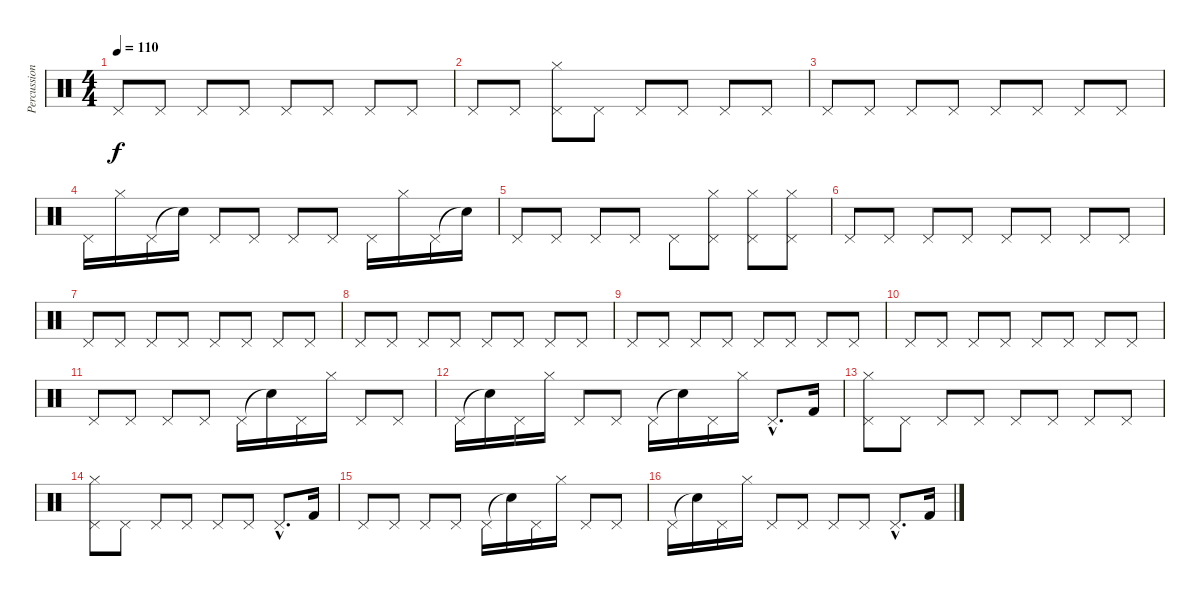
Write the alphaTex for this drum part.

\track ("Percussion" "Percussion") {instrument percussion}
\staff {score}
\articulation defaults
\ts (4 4)
\tempo 110
\clef neutral
\ks c "Pedal Hi-Hat (hit)".8{dy f} "Pedal Hi-Hat (hit)".8 "Pedal Hi-Hat (hit)".8 "Pedal Hi-Hat (hit)".8 "Pedal Hi-Hat (hit)".8 "Pedal Hi-Hat (hit)".8 "Pedal Hi-Hat (hit)".8 "Pedal Hi-Hat (hit)".8
|
"Pedal Hi-Hat (hit)".8 "Pedal Hi-Hat (hit)".8 ("Hi-Hat (closed)" "Pedal Hi-Hat (hit)").8 "Pedal Hi-Hat (hit)".8 "Pedal Hi-Hat (hit)".8 "Pedal Hi-Hat (hit)".8 "Pedal Hi-Hat (hit)".8 "Pedal Hi-Hat (hit)".8 |
"Pedal Hi-Hat (hit)".8 "Pedal Hi-Hat (hit)".8 "Pedal Hi-Hat (hit)".8 "Pedal Hi-Hat (hit)".8 "Pedal Hi-Hat (hit)".8 "Pedal Hi-Hat (hit)".8 "Pedal Hi-Hat (hit)".8 "Pedal Hi-Hat (hit)".8 |
"Pedal Hi-Hat (hit)".16 "Hi-Hat (closed)".16 "Pedal Hi-Hat (hit)".16 "Snare (hit)"{t}.16 "Pedal Hi-Hat (hit)".8 "Pedal Hi-Hat (hit)".8 "Pedal Hi-Hat (hit)".8 "Pedal Hi-Hat (hit)".8 "Pedal Hi-Hat (hit)".16 "Hi-Hat (closed)".16 "Pedal Hi-Hat (hit)".16 "Snare (hit)"{t}.16 |
"Pedal Hi-Hat (hit)".8 "Pedal Hi-Hat (hit)".8 "Pedal Hi-Hat (hit)".8 "Pedal Hi-Hat (hit)".8 "Pedal Hi-Hat (hit)".8 ("Hi-Hat (closed)" "Pedal Hi-Hat (hit)").8 ("Hi-Hat (closed)" "Pedal Hi-Hat (hit)").8 ("Hi-Hat (closed)" "Pedal Hi-Hat (hit)").8 |
"Pedal Hi-Hat (hit)".8 "Pedal Hi-Hat (hit)".8 "Pedal Hi-Hat (hit)".8 "Pedal Hi-Hat (hit)".8 "Pedal Hi-Hat (hit)".8 "Pedal Hi-Hat (hit)".8 "Pedal Hi-Hat (hit)".8 "Pedal Hi-Hat (hit)".8 |
"Pedal Hi-Hat (hit)".8 "Pedal Hi-Hat (hit)".8 "Pedal Hi-Hat (hit)".8 "Pedal Hi-Hat (hit)".8 "Pedal Hi-Hat (hit)".8 "Pedal Hi-Hat (hit)".8 "Pedal Hi-Hat (hit)".8 "Pedal Hi-Hat (hit)".8 |
"Pedal Hi-Hat (hit)".8 "Pedal Hi-Hat (hit)".8 "Pedal Hi-Hat (hit)".8 "Pedal Hi-Hat (hit)".8 "Pedal Hi-Hat (hit)".8 "Pedal Hi-Hat (hit)".8 "Pedal Hi-Hat (hit)".8 "Pedal Hi-Hat (hit)".8 |
"Pedal Hi-Hat (hit)".8 "Pedal Hi-Hat (hit)".8 "Pedal Hi-Hat (hit)".8 "Pedal Hi-Hat (hit)".8 "Pedal Hi-Hat (hit)".8 "Pedal Hi-Hat (hit)".8 "Pedal Hi-Hat (hit)".8 "Pedal Hi-Hat (hit)".8 |
"Pedal Hi-Hat (hit)".8 "Pedal Hi-Hat (hit)".8 "Pedal Hi-Hat (hit)".8 "Pedal Hi-Hat (hit)".8 "Pedal Hi-Hat (hit)".8 "Pedal Hi-Hat (hit)".8 "Pedal Hi-Hat (hit)".8 "Pedal Hi-Hat (hit)".8 |
"Pedal Hi-Hat (hit)".8 "Pedal Hi-Hat (hit)".8 "Pedal Hi-Hat (hit)".8 "Pedal Hi-Hat (hit)".8 "Pedal Hi-Hat (hit)".16 "Snare (hit)"{t}.16 "Pedal Hi-Hat (hit)".16 "Hi-Hat (closed)".16 "Pedal Hi-Hat (hit)".8 "Pedal Hi-Hat (hit)".8 |
"Pedal Hi-Hat (hit)".16 "Snare (hit)"{t}.16 "Pedal Hi-Hat (hit)".16 "Hi-Hat (closed)".16 "Pedal Hi-Hat (hit)".8 "Pedal Hi-Hat (hit)".8 "Pedal Hi-Hat (hit)".16 "Snare (hit)"{t}.16 "Pedal Hi-Hat (hit)".16 "Hi-Hat (closed)".16 "Pedal Hi-Hat (hit)"{hac}.8{d} "Kick (hit) 2".16 |
("Hi-Hat (closed)" "Pedal Hi-Hat (hit)").8 "Pedal Hi-Hat (hit)".8 "Pedal Hi-Hat (hit)".8 "Pedal Hi-Hat (hit)".8 "Pedal Hi-Hat (hit)".8 "Pedal Hi-Hat (hit)".8 "Pedal Hi-Hat (hit)".8 "Pedal Hi-Hat (hit)".8 |
("Hi-Hat (closed)" "Pedal Hi-Hat (hit)").8 "Pedal Hi-Hat (hit)".8 "Pedal Hi-Hat (hit)".8 "Pedal Hi-Hat (hit)".8 "Pedal Hi-Hat (hit)".8 "Pedal Hi-Hat (hit)".8 "Pedal Hi-Hat (hit)"{hac}.8{d} "Kick (hit) 2".16 |
"Pedal Hi-Hat (hit)".8 "Pedal Hi-Hat (hit)".8 "Pedal Hi-Hat (hit)".8 "Pedal Hi-Hat (hit)".8 "Pedal Hi-Hat (hit)".16 "Snare (hit)"{t}.16 "Pedal Hi-Hat (hit)".16 "Hi-Hat (closed)".16 "Pedal Hi-Hat (hit)".8 "Pedal Hi-Hat (hit)".8 |
"Pedal Hi-Hat (hit)".16 "Snare (hit)"{t}.16 "Pedal Hi-Hat (hit)".16 "Hi-Hat (closed)".16 "Pedal Hi-Hat (hit)".8 "Pedal Hi-Hat (hit)".8 "Pedal Hi-Hat (hit)".8 "Pedal Hi-Hat (hit)".8 "Pedal Hi-Hat (hit)"{hac}.8{d} "Kick (hit) 2".16
